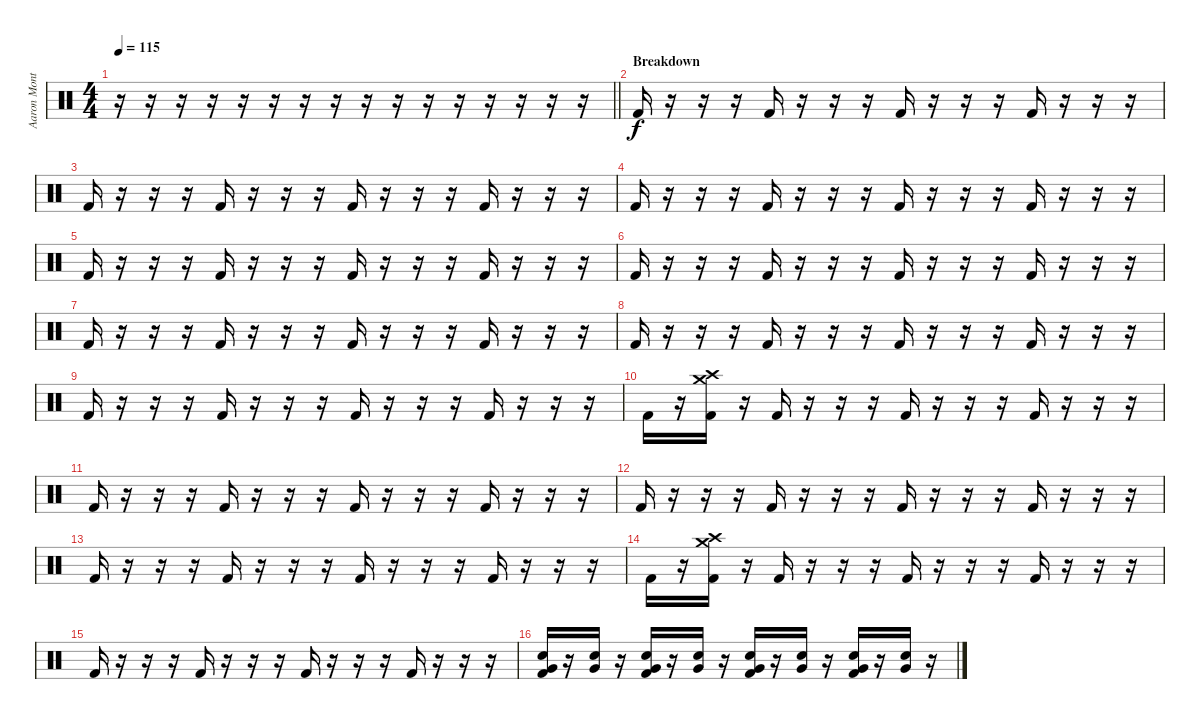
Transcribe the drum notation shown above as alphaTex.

\track ("Aaron Montgomery" "Aaron Mont") {instrument percussion}
\staff {score}
\articulation defaults
\ts (4 4)
\tempo 115
\clef neutral
\barLineRight lightlight
\ks c
r.16{dy f} r.16 r.16 r.16 r.16 r.16 r.16 r.16 r.16 r.16 r.16 r.16 r.16 r.16 r.16 r.16 |
\section ("" "Breakdown")
"Kick (hit) 2".16 r.16 r.16 r.16 "Kick (hit) 2".16 r.16 r.16 r.16 "Kick (hit) 2".16 r.16 r.16 r.16 "Kick (hit) 2".16 r.16 r.16 r.16 |
"Kick (hit) 2".16 r.16 r.16 r.16 "Kick (hit) 2".16 r.16 r.16 r.16 "Kick (hit) 2".16 r.16 r.16 r.16 "Kick (hit) 2".16 r.16 r.16 r.16 |
"Kick (hit) 2".16 r.16 r.16 r.16 "Kick (hit) 2".16 r.16 r.16 r.16 "Kick (hit) 2".16 r.16 r.16 r.16 "Kick (hit) 2".16 r.16 r.16 r.16 |
"Kick (hit) 2".16 r.16 r.16 r.16 "Kick (hit) 2".16 r.16 r.16 r.16 "Kick (hit) 2".16 r.16 r.16 r.16 "Kick (hit) 2".16 r.16 r.16 r.16 |
"Kick (hit) 2".16 r.16 r.16 r.16 "Kick (hit) 2".16 r.16 r.16 r.16 "Kick (hit) 2".16 r.16 r.16 r.16 "Kick (hit) 2".16 r.16 r.16 r.16 |
"Kick (hit) 2".16 r.16 r.16 r.16 "Kick (hit) 2".16 r.16 r.16 r.16 "Kick (hit) 2".16 r.16 r.16 r.16 "Kick (hit) 2".16 r.16 r.16 r.16 |
"Kick (hit) 2".16 r.16 r.16 r.16 "Kick (hit) 2".16 r.16 r.16 r.16 "Kick (hit) 2".16 r.16 r.16 r.16 "Kick (hit) 2".16 r.16 r.16 r.16 |
"Kick (hit) 2".16 r.16 r.16 r.16 "Kick (hit) 2".16 r.16 r.16 r.16 "Kick (hit) 2".16 r.16 r.16 r.16 "Kick (hit) 2".16 r.16 r.16 r.16 |
"Kick (hit) 2".16 r.16 ("Crash high (hit)" "Crash medium (hit)" "Kick (hit) 2").16 r.16 "Kick (hit) 2".16 r.16 r.16 r.16 "Kick (hit) 2".16 r.16 r.16 r.16 "Kick (hit) 2".16 r.16 r.16 r.16 |
"Kick (hit) 2".16 r.16 r.16 r.16 "Kick (hit) 2".16 r.16 r.16 r.16 "Kick (hit) 2".16 r.16 r.16 r.16 "Kick (hit) 2".16 r.16 r.16 r.16 |
"Kick (hit) 2".16 r.16 r.16 r.16 "Kick (hit) 2".16 r.16 r.16 r.16 "Kick (hit) 2".16 r.16 r.16 r.16 "Kick (hit) 2".16 r.16 r.16 r.16 |
"Kick (hit) 2".16 r.16 r.16 r.16 "Kick (hit) 2".16 r.16 r.16 r.16 "Kick (hit) 2".16 r.16 r.16 r.16 "Kick (hit) 2".16 r.16 r.16 r.16 |
"Kick (hit) 2".16 r.16 ("Crash high (hit)" "Crash medium (hit)" "Kick (hit) 2").16 r.16 "Kick (hit) 2".16 r.16 r.16 r.16 "Kick (hit) 2".16 r.16 r.16 r.16 "Kick (hit) 2".16 r.16 r.16 r.16 |
"Kick (hit) 2".16 r.16 r.16 r.16 "Kick (hit) 2".16 r.16 r.16 r.16 "Kick (hit) 2".16 r.16 r.16 r.16 "Kick (hit) 2".16 r.16 r.16 r.16 |
("Very Low Tom (hit)" "Snare (hit) 2" "Kick (hit) 2").16 r.16 ("Very Low Tom (hit)" "Snare (hit) 2").16 r.16 ("Very Low Tom (hit)" "Snare (hit) 2" "Kick (hit) 2").16 r.16 ("Very Low Tom (hit)" "Snare (hit) 2").16 r.16 ("Very Low Tom (hit)" "Snare (hit) 2" "Kick (hit) 2").16 r.16 ("Very Low Tom (hit)" "Snare (hit) 2").16 r.16 ("Very Low Tom (hit)" "Snare (hit) 2" "Kick (hit) 2").16 r.16 ("Very Low Tom (hit)" "Snare (hit) 2").16 r.16
